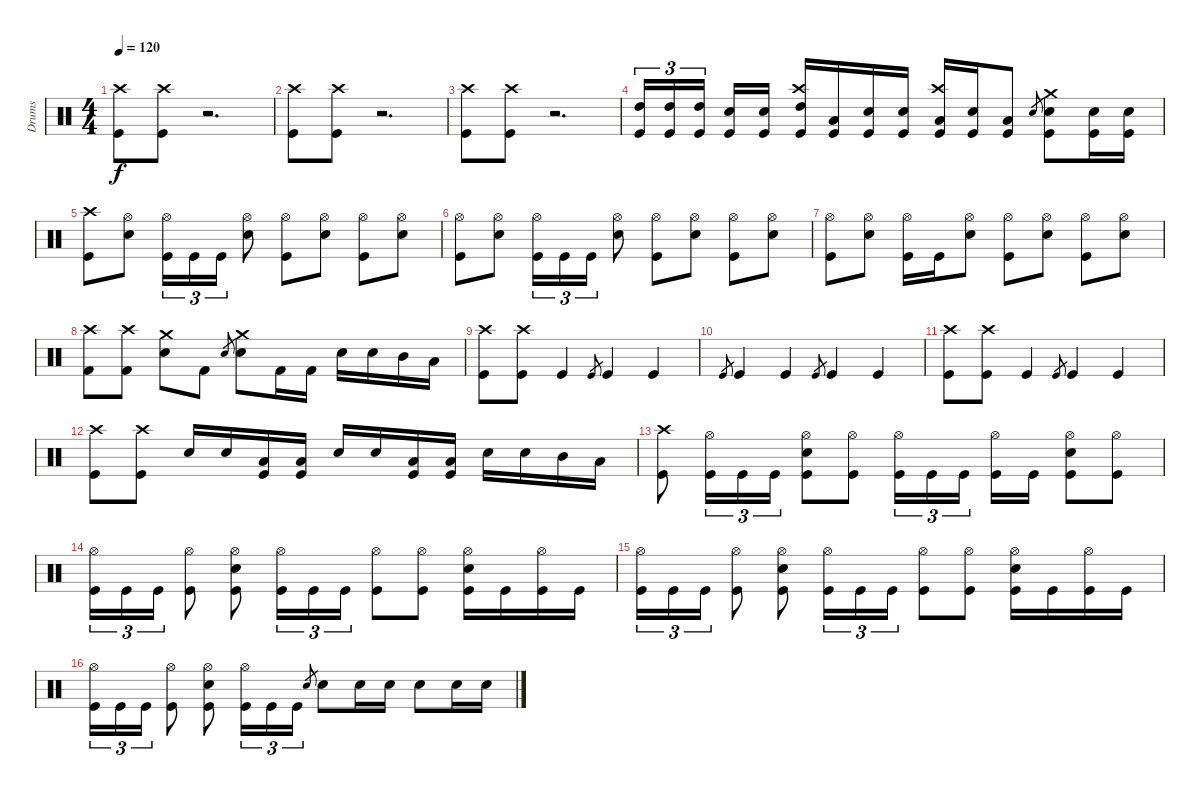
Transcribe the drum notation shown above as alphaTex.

\track ("Drums" "Drums") {instrument percussion}
\staff {score}
\articulation defaults
\ts (4 4)
\tempo 120
\clef neutral
\ks c
("Kick (hit)" "Crash high (hit)").8{dy f} ("Kick (hit)" "Crash high (hit)").8 r.2{d} |
("Kick (hit)" "Crash high (hit)").8 ("Kick (hit)" "Crash high (hit)").8 r.2{d} |
("Kick (hit)" "Crash high (hit)").8 ("Kick (hit)" "Crash high (hit)").8 r.2{d} |
("Kick (hit)" "High Tom (hit)").16{tu (3 2)} ("Kick (hit)" "High Tom (hit)").16{tu (3 2)} ("Kick (hit)" "High Tom (hit)").16{tu (3 2)} ("Kick (hit)" "Electric Snare (hit)").16 ("Kick (hit)" "Electric Snare (hit)").16 ("Kick (hit)" "High Tom (hit)" "Crash high (hit)").16 ("Kick (hit)" "Low Tom (hit)").16 ("Kick (hit)" "Electric Snare (hit)").16 ("Kick (hit)" "Electric Snare (hit)").16 ("Kick (hit)" "Low Tom (hit)" "Crash high (hit)").16 ("Kick (hit)" "Electric Snare (hit)").16 ("Kick (hit)" "Low Tom (hit)").8 "Electric Snare (hit)".8{gr} ("Kick (hit)" "Electric Snare (hit)" "Crash medium (hit)").8 ("Kick (hit)" "Electric Snare (hit)").16 ("Kick (hit)" "Electric Snare (hit)").16 |
("Kick (hit)" "Crash high (hit)").8 ("Electric Snare (hit)" "Hi-Hat (open)").8 ("Kick (hit)" "Hi-Hat (open)").16{tu (3 2)} "Kick (hit)".16{tu (3 2)} "Kick (hit)".16{tu (3 2)} ("Electric Snare (hit)" "Hi-Hat (open)").8 ("Kick (hit)" "Hi-Hat (open)").8 ("Electric Snare (hit)" "Hi-Hat (open)").8 ("Kick (hit)" "Hi-Hat (open)").8 ("Electric Snare (hit)" "Hi-Hat (open)").8 |
("Kick (hit)" "Hi-Hat (open)").8 ("Electric Snare (hit)" "Hi-Hat (open)").8 ("Kick (hit)" "Hi-Hat (open)").16{tu (3 2)} "Kick (hit)".16{tu (3 2)} "Kick (hit)".16{tu (3 2)} ("Electric Snare (hit)" "Hi-Hat (open)").8 ("Kick (hit)" "Hi-Hat (open)").8 ("Electric Snare (hit)" "Hi-Hat (open)").8 ("Kick (hit)" "Hi-Hat (open)").8 ("Electric Snare (hit)" "Hi-Hat (open)").8 |
("Kick (hit)" "Hi-Hat (open)").8 ("Electric Snare (hit)" "Hi-Hat (open)").8 ("Kick (hit)" "Hi-Hat (open)").16 "Kick (hit)".16 ("Electric Snare (hit)" "Hi-Hat (open)").8 ("Kick (hit)" "Hi-Hat (open)").8 ("Electric Snare (hit)" "Hi-Hat (open)").8 ("Kick (hit)" "Hi-Hat (open)").8 ("Electric Snare (hit)" "Hi-Hat (open)").8 |
("Kick (hit) 2" "Crash high (hit)").8 ("Kick (hit) 2" "Crash high (hit)").8 ("Electric Snare (hit)" "Crash medium (hit)").8 "Kick (hit) 2".8 "Electric Snare (hit)".8{gr} ("Electric Snare (hit)" "Crash medium (hit)").8 "Kick (hit) 2".16 "Kick (hit) 2".16 "Electric Snare (hit)".16 "Electric Snare (hit)".16 "Mid Tom (hit)".16 "Low Tom (hit)".16 |
("Kick (hit)" "Crash high (hit)").8 ("Kick (hit)" "Crash high (hit)").8 "Kick (hit)".4 "Kick (hit)".8{gr} "Kick (hit)".4 "Kick (hit)".4 |
"Kick (hit)".8{gr} "Kick (hit)".4 "Kick (hit)".4 "Kick (hit)".8{gr} "Kick (hit)".4 "Kick (hit)".4 |
("Kick (hit)" "Crash high (hit)").8 ("Kick (hit)" "Crash high (hit)").8 "Kick (hit)".4 "Kick (hit)".8{gr} "Kick (hit)".4 "Kick (hit)".4 |
("Kick (hit)" "Crash high (hit)").8 ("Kick (hit)" "Crash high (hit)").8 "Electric Snare (hit)".16 "Electric Snare (hit)".16 ("Kick (hit)" "Low Floor Tom (hit)").16 ("Kick (hit)" "Low Floor Tom (hit)").16 "Electric Snare (hit)".16 "Electric Snare (hit)".16 ("Kick (hit)" "Low Floor Tom (hit)").16 ("Kick (hit)" "Low Floor Tom (hit)").16 "Electric Snare (hit)".16 "Electric Snare (hit)".16 "Mid Tom (hit)".16 "Low Tom (hit)".16 |
("Kick (hit)" "Crash high (hit)").8 ("Kick (hit)" "Hi-Hat (open)").16{tu (3 2)} "Kick (hit)".16{tu (3 2)} "Kick (hit)".16{tu (3 2)} ("Kick (hit)" "Electric Snare (hit)" "Hi-Hat (open)").8 ("Kick (hit)" "Hi-Hat (open)").8 ("Kick (hit)" "Hi-Hat (open)").16{tu (3 2)} "Kick (hit)".16{tu (3 2)} "Kick (hit)".16{tu (3 2)} ("Kick (hit)" "Hi-Hat (open)").16 "Kick (hit)".16 ("Kick (hit)" "Electric Snare (hit)" "Hi-Hat (open)").8 ("Kick (hit)" "Hi-Hat (open)").8 |
("Kick (hit)" "Hi-Hat (open)").16{tu (3 2)} "Kick (hit)".16{tu (3 2)} "Kick (hit)".16{tu (3 2)} ("Kick (hit)" "Hi-Hat (open)").8 ("Kick (hit)" "Electric Snare (hit)" "Hi-Hat (open)").8 ("Kick (hit)" "Hi-Hat (open)").16{tu (3 2)} "Kick (hit)".16{tu (3 2)} "Kick (hit)".16{tu (3 2)} ("Kick (hit)" "Hi-Hat (open)").8 ("Kick (hit)" "Hi-Hat (open)").8 ("Kick (hit)" "Electric Snare (hit)" "Hi-Hat (open)").16 "Kick (hit)".16 ("Kick (hit)" "Hi-Hat (open)").16 "Kick (hit)".16 |
("Kick (hit)" "Hi-Hat (open)").16{tu (3 2)} "Kick (hit)".16{tu (3 2)} "Kick (hit)".16{tu (3 2)} ("Kick (hit)" "Hi-Hat (open)").8 ("Kick (hit)" "Electric Snare (hit)" "Hi-Hat (open)").8 ("Kick (hit)" "Hi-Hat (open)").16{tu (3 2)} "Kick (hit)".16{tu (3 2)} "Kick (hit)".16{tu (3 2)} ("Kick (hit)" "Hi-Hat (open)").8 ("Kick (hit)" "Hi-Hat (open)").8 ("Kick (hit)" "Electric Snare (hit)" "Hi-Hat (open)").16 "Kick (hit)".16 ("Kick (hit)" "Hi-Hat (open)").16 "Kick (hit)".16 |
("Kick (hit)" "Hi-Hat (open)").16{tu (3 2)} "Kick (hit)".16{tu (3 2)} "Kick (hit)".16{tu (3 2)} ("Kick (hit)" "Hi-Hat (open)").8 ("Kick (hit)" "Electric Snare (hit)" "Hi-Hat (open)").8 ("Kick (hit)" "Hi-Hat (open)").16{tu (3 2)} "Kick (hit)".16{tu (3 2)} "Kick (hit)".16{tu (3 2)} "Electric Snare (hit)".8{gr} "Electric Snare (hit)".8 "Electric Snare (hit)".16 "Electric Snare (hit)".16 "Electric Snare (hit)".8 "Electric Snare (hit)".16 "Electric Snare (hit)".16
